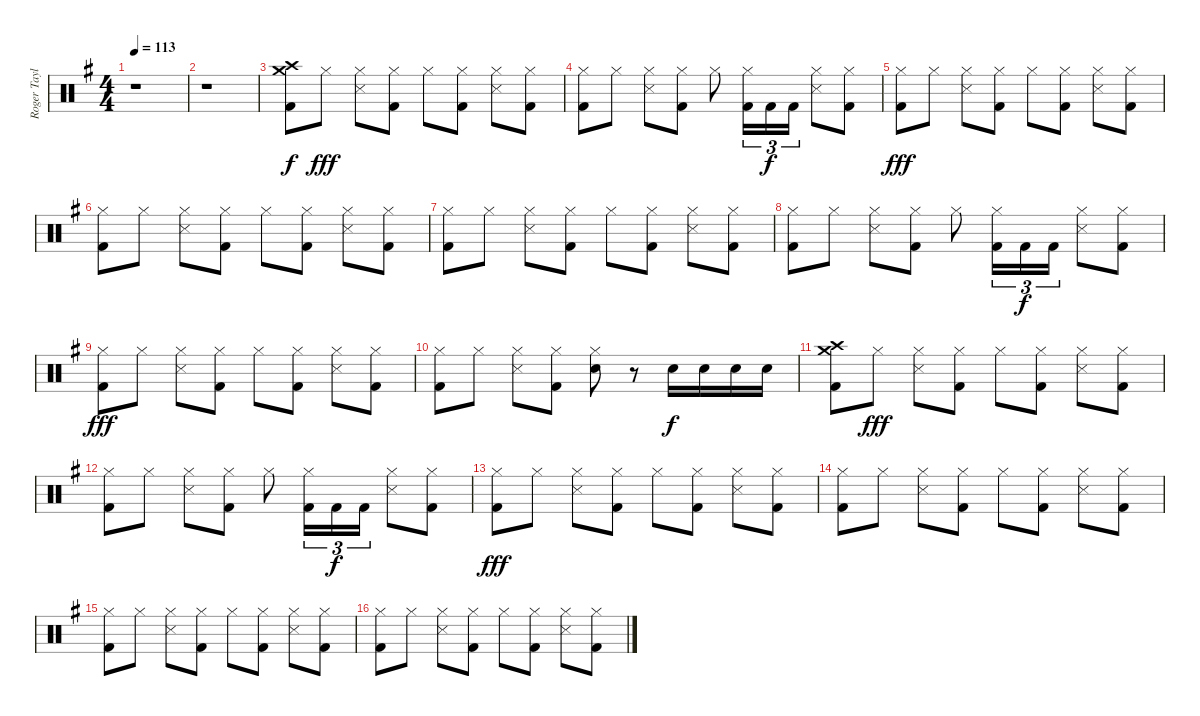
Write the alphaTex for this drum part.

\track ("Roger Taylor" "Roger Tayl") {instrument percussion}
\staff {score}
\articulation defaults
\ts (4 4)
\tempo 113
\clef neutral
\ks g
r.1{dy f} |
r.1 |
("Crash high (hit)" "Crash medium (hit)" "Kick (hit) 2").8 "Hi-Hat (closed)".8{dy fff} ("Hi-Hat (closed)" "Snare (side stick) 3").8 ("Hi-Hat (closed)" "Kick (hit) 2").8 "Hi-Hat (closed)".8 ("Hi-Hat (closed)" "Kick (hit) 2").8 ("Hi-Hat (closed)" "Snare (side stick) 3").8 ("Hi-Hat (closed)" "Kick (hit) 2").8 |
("Hi-Hat (closed)" "Kick (hit) 2").8 "Hi-Hat (closed)".8 ("Hi-Hat (closed)" "Snare (side stick) 3").8 ("Hi-Hat (closed)" "Kick (hit) 2").8 "Hi-Hat (closed)".8 ("Hi-Hat (closed)" "Kick (hit) 2").16{tu (3 2)} "Kick (hit) 2".16{tu (3 2) dy f} "Kick (hit) 2".16{tu (3 2)} ("Hi-Hat (closed)" "Snare (side stick) 3").8 ("Hi-Hat (closed)" "Kick (hit) 2").8 |
("Hi-Hat (closed)" "Kick (hit) 2").8{dy fff} "Hi-Hat (closed)".8 ("Hi-Hat (closed)" "Snare (side stick) 3").8 ("Hi-Hat (closed)" "Kick (hit) 2").8 "Hi-Hat (closed)".8 ("Hi-Hat (closed)" "Kick (hit) 2").8 ("Hi-Hat (closed)" "Snare (side stick) 3").8 ("Hi-Hat (closed)" "Kick (hit) 2").8 |
("Hi-Hat (closed)" "Kick (hit) 2").8 "Hi-Hat (closed)".8 ("Hi-Hat (closed)" "Snare (side stick) 3").8 ("Hi-Hat (closed)" "Kick (hit) 2").8 "Hi-Hat (closed)".8 ("Hi-Hat (closed)" "Kick (hit) 2").8 ("Hi-Hat (closed)" "Snare (side stick) 3").8 ("Hi-Hat (closed)" "Kick (hit) 2").8 |
("Hi-Hat (closed)" "Kick (hit) 2").8 "Hi-Hat (closed)".8 ("Hi-Hat (closed)" "Snare (side stick) 3").8 ("Hi-Hat (closed)" "Kick (hit) 2").8 "Hi-Hat (closed)".8 ("Hi-Hat (closed)" "Kick (hit) 2").8 ("Hi-Hat (closed)" "Snare (side stick) 3").8 ("Hi-Hat (closed)" "Kick (hit) 2").8 |
("Hi-Hat (closed)" "Kick (hit) 2").8 "Hi-Hat (closed)".8 ("Hi-Hat (closed)" "Snare (side stick) 3").8 ("Hi-Hat (closed)" "Kick (hit) 2").8 "Hi-Hat (closed)".8 ("Hi-Hat (closed)" "Kick (hit) 2").16{tu (3 2)} "Kick (hit) 2".16{tu (3 2) dy f} "Kick (hit) 2".16{tu (3 2)} ("Hi-Hat (closed)" "Snare (side stick) 3").8 ("Hi-Hat (closed)" "Kick (hit) 2").8 |
("Hi-Hat (closed)" "Kick (hit) 2").8{dy fff} "Hi-Hat (closed)".8 ("Hi-Hat (closed)" "Snare (side stick) 3").8 ("Hi-Hat (closed)" "Kick (hit) 2").8 "Hi-Hat (closed)".8 ("Hi-Hat (closed)" "Kick (hit) 2").8 ("Hi-Hat (closed)" "Snare (side stick) 3").8 ("Hi-Hat (closed)" "Kick (hit) 2").8 |
("Hi-Hat (closed)" "Kick (hit) 2").8 "Hi-Hat (closed)".8 ("Hi-Hat (closed)" "Snare (side stick) 3").8 ("Hi-Hat (closed)" "Kick (hit) 2").8 ("Hi-Hat (closed)" "Snare (hit) 2").8 r.8 "Snare (hit) 2".16{dy f} "Snare (hit) 2".16 "Snare (hit) 2".16 "Snare (hit) 2".16 |
("Crash high (hit)" "Crash medium (hit)" "Kick (hit) 2").8 "Hi-Hat (closed)".8{dy fff} ("Hi-Hat (closed)" "Snare (side stick) 3").8 ("Hi-Hat (closed)" "Kick (hit) 2").8 "Hi-Hat (closed)".8 ("Hi-Hat (closed)" "Kick (hit) 2").8 ("Hi-Hat (closed)" "Snare (side stick) 3").8 ("Hi-Hat (closed)" "Kick (hit) 2").8 |
("Hi-Hat (closed)" "Kick (hit) 2").8 "Hi-Hat (closed)".8 ("Hi-Hat (closed)" "Snare (side stick) 3").8 ("Hi-Hat (closed)" "Kick (hit) 2").8 "Hi-Hat (closed)".8 ("Hi-Hat (closed)" "Kick (hit) 2").16{tu (3 2)} "Kick (hit) 2".16{tu (3 2) dy f} "Kick (hit) 2".16{tu (3 2)} ("Hi-Hat (closed)" "Snare (side stick) 3").8 ("Hi-Hat (closed)" "Kick (hit) 2").8 |
("Hi-Hat (closed)" "Kick (hit) 2").8{dy fff} "Hi-Hat (closed)".8 ("Hi-Hat (closed)" "Snare (side stick) 3").8 ("Hi-Hat (closed)" "Kick (hit) 2").8 "Hi-Hat (closed)".8 ("Hi-Hat (closed)" "Kick (hit) 2").8 ("Hi-Hat (closed)" "Snare (side stick) 3").8 ("Hi-Hat (closed)" "Kick (hit) 2").8 |
("Hi-Hat (closed)" "Kick (hit) 2").8 "Hi-Hat (closed)".8 ("Hi-Hat (closed)" "Snare (side stick) 3").8 ("Hi-Hat (closed)" "Kick (hit) 2").8 "Hi-Hat (closed)".8 ("Hi-Hat (closed)" "Kick (hit) 2").8 ("Hi-Hat (closed)" "Snare (side stick) 3").8 ("Hi-Hat (closed)" "Kick (hit) 2").8 |
("Hi-Hat (closed)" "Kick (hit) 2").8 "Hi-Hat (closed)".8 ("Hi-Hat (closed)" "Snare (side stick) 3").8 ("Hi-Hat (closed)" "Kick (hit) 2").8 "Hi-Hat (closed)".8 ("Hi-Hat (closed)" "Kick (hit) 2").8 ("Hi-Hat (closed)" "Snare (side stick) 3").8 ("Hi-Hat (closed)" "Kick (hit) 2").8 |
("Hi-Hat (closed)" "Kick (hit) 2").8 "Hi-Hat (closed)".8 ("Hi-Hat (closed)" "Snare (side stick) 3").8 ("Hi-Hat (closed)" "Kick (hit) 2").8 "Hi-Hat (closed)".8 ("Hi-Hat (closed)" "Kick (hit) 2").8 ("Hi-Hat (closed)" "Snare (side stick) 3").8 ("Hi-Hat (closed)" "Kick (hit) 2").8
